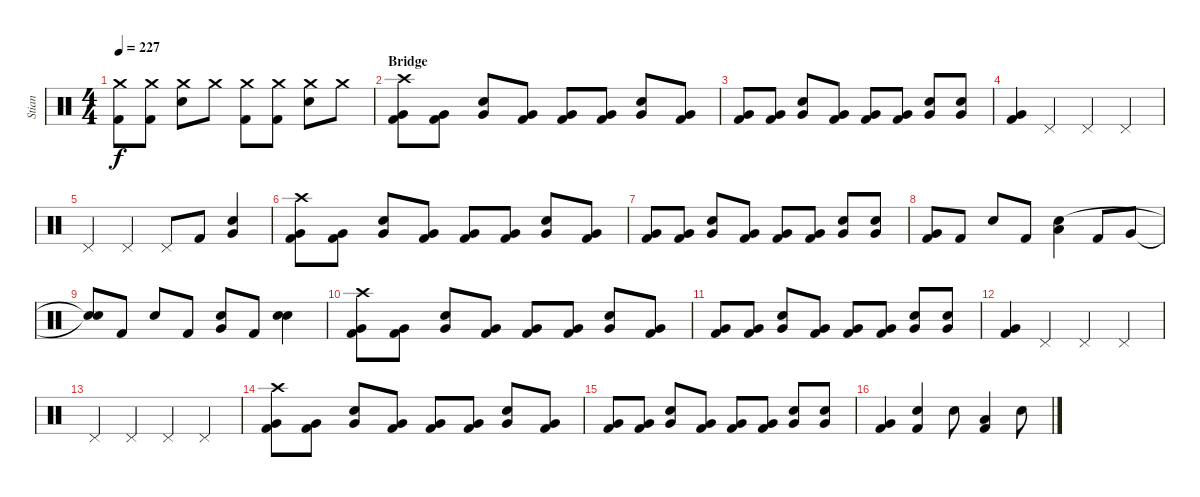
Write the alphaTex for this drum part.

\track ("Stian" "Stian") {instrument percussion}
\staff {score}
\articulation defaults
\ts (4 4)
\tempo 227
\clef neutral
\ks c
("Crash medium (hit)" "Kick (hit) 2").8{dy f} ("Crash medium (hit)" "Kick (hit) 2").8 ("Crash medium (hit)" "Electric Snare (hit)").8 "Crash medium (hit)".8 ("Crash medium (hit)" "Kick (hit) 2").8 ("Crash medium (hit)" "Kick (hit) 2").8 ("Crash medium (hit)" "Electric Snare (hit)").8 "Crash medium (hit)".8 |
\section ("" "Bridge")
("Very Low Tom (hit)" "Crash high (hit)" "Kick (hit) 2").8 ("Very Low Tom (hit)" "Kick (hit) 2").8 ("Very Low Tom (hit)" "Electric Snare (hit)").8 ("Very Low Tom (hit)" "Kick (hit) 2").8 ("Very Low Tom (hit)" "Kick (hit) 2").8 ("Very Low Tom (hit)" "Kick (hit) 2").8 ("Very Low Tom (hit)" "Electric Snare (hit)").8 ("Very Low Tom (hit)" "Kick (hit) 2").8 |
("Very Low Tom (hit)" "Kick (hit) 2").8 ("Very Low Tom (hit)" "Kick (hit) 2").8 ("Very Low Tom (hit)" "Electric Snare (hit)").8 ("Very Low Tom (hit)" "Kick (hit) 2").8 ("Very Low Tom (hit)" "Kick (hit) 2").8 ("Very Low Tom (hit)" "Kick (hit) 2").8 ("Very Low Tom (hit)" "Electric Snare (hit)").8 ("Very Low Tom (hit)" "Electric Snare (hit)").8 |
("Very Low Tom (hit)" "Kick (hit) 2").4 "Pedal Hi-Hat (hit)".4 "Pedal Hi-Hat (hit)".4 "Pedal Hi-Hat (hit)".4 |
"Pedal Hi-Hat (hit)".4 "Pedal Hi-Hat (hit)".4 "Pedal Hi-Hat (hit)".8 "Kick (hit) 2".8 ("Very Low Tom (hit)" "Electric Snare (hit)").4 |
("Very Low Tom (hit)" "Crash high (hit)" "Kick (hit) 2").8 ("Very Low Tom (hit)" "Kick (hit) 2").8 ("Very Low Tom (hit)" "Electric Snare (hit)").8 ("Very Low Tom (hit)" "Kick (hit) 2").8 ("Very Low Tom (hit)" "Kick (hit) 2").8 ("Very Low Tom (hit)" "Kick (hit) 2").8 ("Very Low Tom (hit)" "Electric Snare (hit)").8 ("Very Low Tom (hit)" "Kick (hit) 2").8 |
("Very Low Tom (hit)" "Kick (hit) 2").8 ("Very Low Tom (hit)" "Kick (hit) 2").8 ("Very Low Tom (hit)" "Electric Snare (hit)").8 ("Very Low Tom (hit)" "Kick (hit) 2").8 ("Very Low Tom (hit)" "Kick (hit) 2").8 ("Very Low Tom (hit)" "Kick (hit) 2").8 ("Very Low Tom (hit)" "Electric Snare (hit)").8 ("Very Low Tom (hit)" "Electric Snare (hit)").8 |
("Very Low Tom (hit)" "Kick (hit) 2").8 "Kick (hit) 2".8 "Electric Snare (hit)".8 "Kick (hit) 2".8 ("Low Tom (hit)" "Electric Snare (hit)").4 "Kick (hit) 2".8 "Very Low Tom (hit)".8 |
("Snare (hit)"{t} "Snare (hit)"{t}).8 "Kick (hit) 2".8 "Electric Snare (hit)".8 "Kick (hit) 2".8 ("Very Low Tom (hit)" "Electric Snare (hit)").8 "Kick (hit) 2".8 ("Electric Snare (hit)" "Electric Snare (hit)").4{bd 240} |
("Very Low Tom (hit)" "Crash high (hit)" "Kick (hit) 2").8 ("Very Low Tom (hit)" "Kick (hit) 2").8 ("Very Low Tom (hit)" "Electric Snare (hit)").8 ("Very Low Tom (hit)" "Kick (hit) 2").8 ("Very Low Tom (hit)" "Kick (hit) 2").8 ("Very Low Tom (hit)" "Kick (hit) 2").8 ("Very Low Tom (hit)" "Electric Snare (hit)").8 ("Very Low Tom (hit)" "Kick (hit) 2").8 |
("Very Low Tom (hit)" "Kick (hit) 2").8 ("Very Low Tom (hit)" "Kick (hit) 2").8 ("Very Low Tom (hit)" "Electric Snare (hit)").8 ("Very Low Tom (hit)" "Kick (hit) 2").8 ("Very Low Tom (hit)" "Kick (hit) 2").8 ("Very Low Tom (hit)" "Kick (hit) 2").8 ("Very Low Tom (hit)" "Electric Snare (hit)").8 ("Very Low Tom (hit)" "Electric Snare (hit)").8 |
("Very Low Tom (hit)" "Kick (hit) 2").4 "Pedal Hi-Hat (hit)".4 "Pedal Hi-Hat (hit)".4 "Pedal Hi-Hat (hit)".4 |
"Pedal Hi-Hat (hit)".4 "Pedal Hi-Hat (hit)".4 "Pedal Hi-Hat (hit)".4 "Pedal Hi-Hat (hit)".4 |
("Very Low Tom (hit)" "Crash high (hit)" "Kick (hit) 2").8 ("Very Low Tom (hit)" "Kick (hit) 2").8 ("Very Low Tom (hit)" "Electric Snare (hit)").8 ("Very Low Tom (hit)" "Kick (hit) 2").8 ("Very Low Tom (hit)" "Kick (hit) 2").8 ("Very Low Tom (hit)" "Kick (hit) 2").8 ("Very Low Tom (hit)" "Electric Snare (hit)").8 ("Very Low Tom (hit)" "Kick (hit) 2").8 |
("Very Low Tom (hit)" "Kick (hit) 2").8 ("Very Low Tom (hit)" "Kick (hit) 2").8 ("Very Low Tom (hit)" "Electric Snare (hit)").8 ("Very Low Tom (hit)" "Kick (hit) 2").8 ("Very Low Tom (hit)" "Kick (hit) 2").8 ("Very Low Tom (hit)" "Kick (hit) 2").8 ("Very Low Tom (hit)" "Electric Snare (hit)").8 ("Very Low Tom (hit)" "Electric Snare (hit)").8 |
("Very Low Tom (hit)" "Kick (hit) 2").4 ("Kick (hit) 2" "Electric Snare (hit)").4 "Electric Snare (hit)".8 ("Low Tom (hit)" "Kick (hit) 2").4 "Electric Snare (hit)".8
